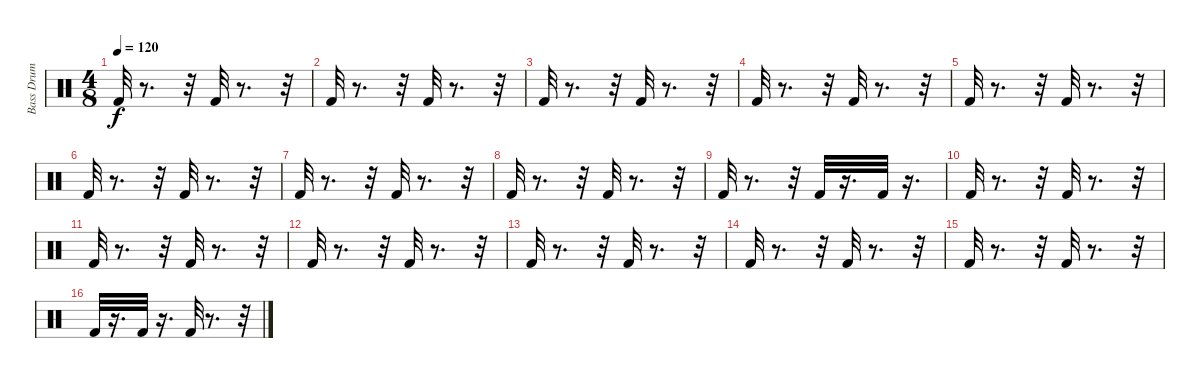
\track ("Bass Drum" "Bass Drum") {instrument percussion}
\staff {score}
\articulation defaults
\ts (4 8)
\tempo 120
\clef neutral
\ks c "Kick (hit) 2".32{dy f}
r.8{d} r.32 "Kick (hit) 2".32 r.8{d} r.32 |
"Kick (hit) 2".32 r.8{d} r.32 "Kick (hit) 2".32 r.8{d} r.32 |
"Kick (hit) 2".32 r.8{d} r.32 "Kick (hit) 2".32 r.8{d} r.32 |
"Kick (hit) 2".32 r.8{d} r.32 "Kick (hit) 2".32 r.8{d} r.32 |
"Kick (hit) 2".32 r.8{d} r.32 "Kick (hit) 2".32 r.8{d} r.32 |
"Kick (hit) 2".32 r.8{d} r.32 "Kick (hit) 2".32 r.8{d} r.32 |
"Kick (hit) 2".32 r.8{d} r.32 "Kick (hit) 2".32 r.8{d} r.32 |
"Kick (hit) 2".32 r.8{d} r.32 "Kick (hit) 2".32 r.8{d} r.32 |
"Kick (hit) 2".32 r.8{d} r.32 "Kick (hit) 2".32 r.16{d} "Kick (hit) 2".32 r.16{d} |
"Kick (hit) 2".32 r.8{d} r.32 "Kick (hit) 2".32 r.8{d} r.32 |
"Kick (hit) 2".32 r.8{d} r.32 "Kick (hit) 2".32 r.8{d} r.32 |
"Kick (hit) 2".32 r.8{d} r.32 "Kick (hit) 2".32 r.8{d} r.32 |
"Kick (hit) 2".32 r.8{d} r.32 "Kick (hit) 2".32 r.8{d} r.32 |
"Kick (hit) 2".32 r.8{d} r.32 "Kick (hit) 2".32 r.8{d} r.32 |
"Kick (hit) 2".32 r.8{d} r.32 "Kick (hit) 2".32 r.8{d} r.32 |
"Kick (hit) 2".32 r.16{d} "Kick (hit) 2".32 r.16{d} "Kick (hit) 2".32 r.8{d} r.32
